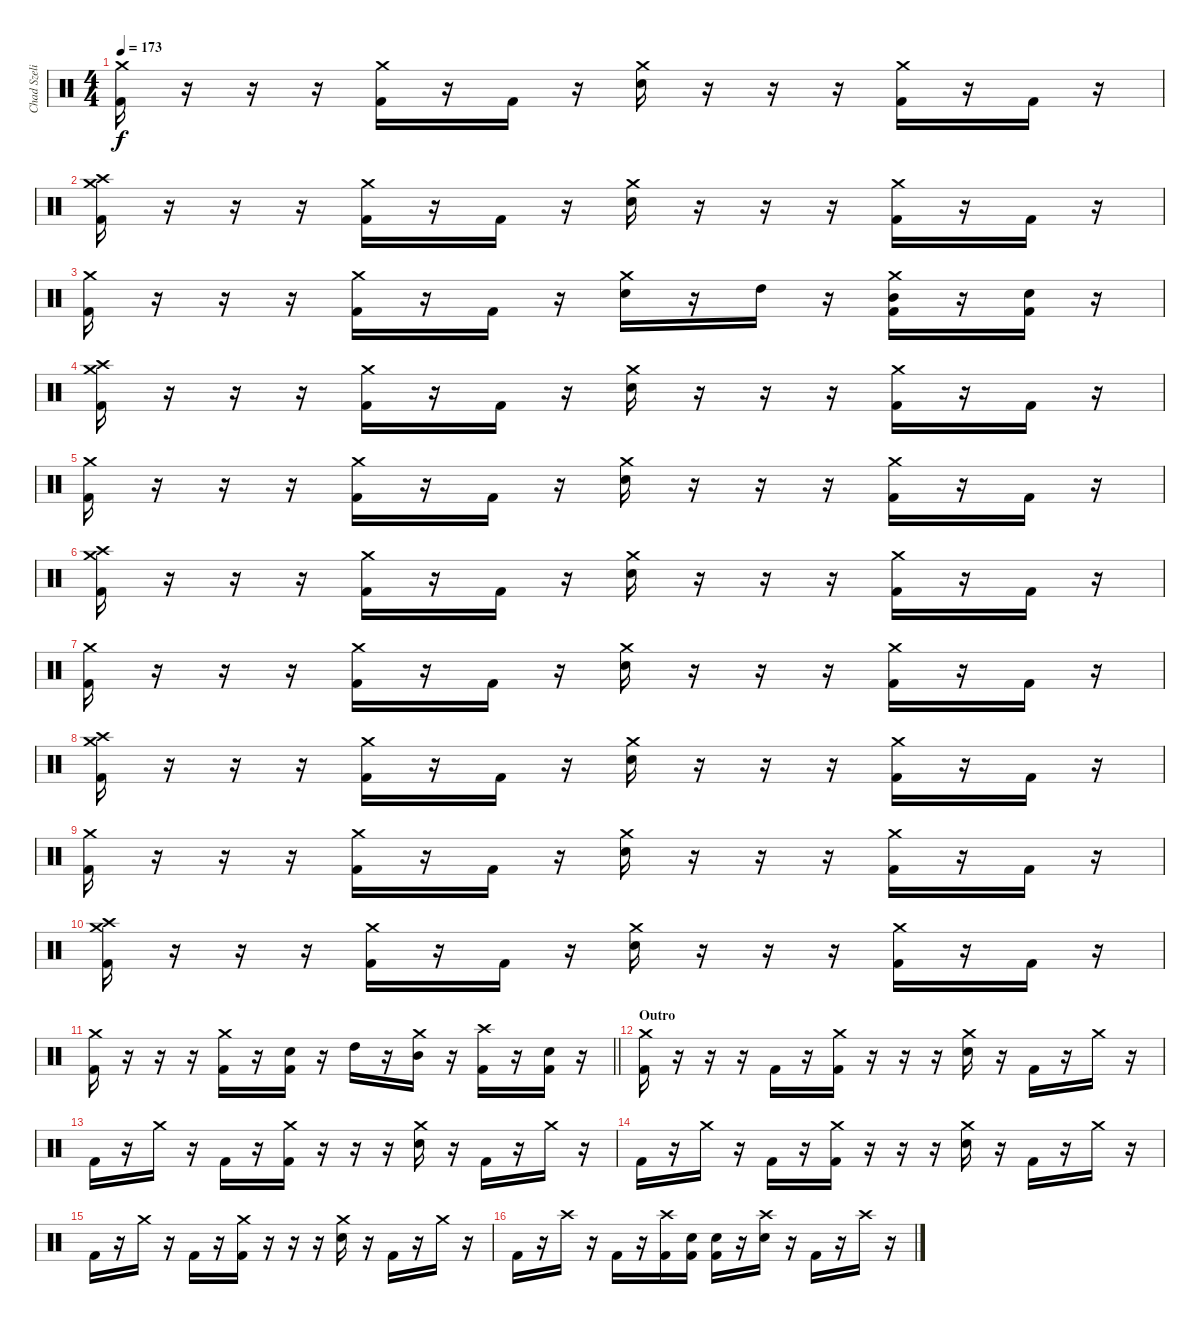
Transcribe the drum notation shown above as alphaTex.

\track ("Chad Szeliga" "Chad Szeli") {instrument percussion}
\staff {score}
\articulation defaults
\ts (4 4)
\tempo 173
\clef neutral
\ks c
("Crash medium (hit)" "Kick (hit) 2").16{dy f} r.16 r.16 r.16 ("Crash medium (hit)" "Kick (hit) 2").16 r.16 "Kick (hit) 2".16 r.16 ("Crash medium (hit)" "Electric Snare (hit)").16 r.16 r.16 r.16 ("Crash medium (hit)" "Kick (hit) 2").16 r.16 "Kick (hit) 2".16 r.16 |
("Crash medium (hit)" "Crash high (hit)" "Kick (hit) 2").16 r.16 r.16 r.16 ("Crash medium (hit)" "Kick (hit) 2").16 r.16 "Kick (hit) 2".16 r.16 ("Crash medium (hit)" "Electric Snare (hit)").16 r.16 r.16 r.16 ("Crash medium (hit)" "Kick (hit) 2").16 r.16 "Kick (hit) 2".16 r.16 |
("Crash medium (hit)" "Kick (hit) 2").16 r.16 r.16 r.16 ("Crash medium (hit)" "Kick (hit) 2").16 r.16 "Kick (hit) 2".16 r.16 ("Crash medium (hit)" "Electric Snare (hit)").16 r.16 "High Tom (hit)".16 r.16 ("Crash medium (hit)" "Mid Tom (hit)" "Kick (hit) 2").16 r.16 ("Electric Snare (hit)" "Kick (hit) 2").16 r.16 |
("Crash medium (hit)" "Crash high (hit)" "Kick (hit) 2").16 r.16 r.16 r.16 ("Crash medium (hit)" "Kick (hit) 2").16 r.16 "Kick (hit) 2".16 r.16 ("Crash medium (hit)" "Electric Snare (hit)").16 r.16 r.16 r.16 ("Crash medium (hit)" "Kick (hit) 2").16 r.16 "Kick (hit) 2".16 r.16 |
("Crash medium (hit)" "Kick (hit) 2").16 r.16 r.16 r.16 ("Crash medium (hit)" "Kick (hit) 2").16 r.16 "Kick (hit) 2".16 r.16 ("Crash medium (hit)" "Electric Snare (hit)").16 r.16 r.16 r.16 ("Crash medium (hit)" "Kick (hit) 2").16 r.16 "Kick (hit) 2".16 r.16 |
("Crash medium (hit)" "Crash high (hit)" "Kick (hit) 2").16 r.16 r.16 r.16 ("Crash medium (hit)" "Kick (hit) 2").16 r.16 "Kick (hit) 2".16 r.16 ("Crash medium (hit)" "Electric Snare (hit)").16 r.16 r.16 r.16 ("Crash medium (hit)" "Kick (hit) 2").16 r.16 "Kick (hit) 2".16 r.16 |
("Crash medium (hit)" "Kick (hit) 2").16 r.16 r.16 r.16 ("Crash medium (hit)" "Kick (hit) 2").16 r.16 "Kick (hit) 2".16 r.16 ("Crash medium (hit)" "Electric Snare (hit)").16 r.16 r.16 r.16 ("Crash medium (hit)" "Kick (hit) 2").16 r.16 "Kick (hit) 2".16 r.16 |
("Crash medium (hit)" "Crash high (hit)" "Kick (hit) 2").16 r.16 r.16 r.16 ("Crash medium (hit)" "Kick (hit) 2").16 r.16 "Kick (hit) 2".16 r.16 ("Crash medium (hit)" "Electric Snare (hit)").16 r.16 r.16 r.16 ("Crash medium (hit)" "Kick (hit) 2").16 r.16 "Kick (hit) 2".16 r.16 |
("Crash medium (hit)" "Kick (hit) 2").16 r.16 r.16 r.16 ("Crash medium (hit)" "Kick (hit) 2").16 r.16 "Kick (hit) 2".16 r.16 ("Crash medium (hit)" "Electric Snare (hit)").16 r.16 r.16 r.16 ("Crash medium (hit)" "Kick (hit) 2").16 r.16 "Kick (hit) 2".16 r.16 |
("Crash medium (hit)" "Crash high (hit)" "Kick (hit) 2").16 r.16 r.16 r.16 ("Crash medium (hit)" "Kick (hit) 2").16 r.16 "Kick (hit) 2".16 r.16 ("Crash medium (hit)" "Electric Snare (hit)").16 r.16 r.16 r.16 ("Crash medium (hit)" "Kick (hit) 2").16 r.16 "Kick (hit) 2".16 r.16 |
\barLineRight lightlight
("Crash medium (hit)" "Kick (hit) 2").16 r.16 r.16 r.16 ("Crash medium (hit)" "Kick (hit) 2").16 r.16 ("Electric Snare (hit)" "Kick (hit) 2").16 r.16 "High Tom (hit)".16 r.16 ("Crash medium (hit)" "Mid Tom (hit)").16 r.16 ("Crash high (hit)" "Kick (hit) 2").16 r.16 ("Electric Snare (hit)" "Kick (hit) 2").16 r.16 |
\section ("" "Outro")
("Crash medium (hit)" "Kick (hit) 2").16 r.16 r.16 r.16 "Kick (hit) 2".16 r.16 ("Crash medium (hit)" "Kick (hit) 2").16 r.16 r.16 r.16 ("Crash medium (hit)" "Electric Snare (hit)").16 r.16 "Kick (hit) 2".16 r.16 "Crash medium (hit)".16 r.16 |
"Kick (hit) 2".16 r.16 "Crash medium (hit)".16 r.16 "Kick (hit) 2".16 r.16 ("Crash medium (hit)" "Kick (hit) 2").16 r.16 r.16 r.16 ("Crash medium (hit)" "Electric Snare (hit)").16 r.16 "Kick (hit) 2".16 r.16 "Crash medium (hit)".16 r.16 |
"Kick (hit) 2".16 r.16 "Crash medium (hit)".16 r.16 "Kick (hit) 2".16 r.16 ("Crash medium (hit)" "Kick (hit) 2").16 r.16 r.16 r.16 ("Crash medium (hit)" "Electric Snare (hit)").16 r.16 "Kick (hit) 2".16 r.16 "Crash medium (hit)".16 r.16 |
"Kick (hit) 2".16 r.16 "Crash medium (hit)".16 r.16 "Kick (hit) 2".16 r.16 ("Crash medium (hit)" "Kick (hit) 2").16 r.16 r.16 r.16 ("Crash medium (hit)" "Electric Snare (hit)").16 r.16 "Kick (hit) 2".16 r.16 "Crash medium (hit)".16 r.16 |
"Kick (hit) 2".16 r.16 "Crash high (hit)".16 r.16 "Kick (hit) 2".16 r.16 ("Crash high (hit)" "Kick (hit) 2").16 ("Electric Snare (hit)" "Kick (hit) 2").16 ("Electric Snare (hit)" "Kick (hit) 2").16 r.16 ("Crash high (hit)" "Electric Snare (hit)").16 r.16 "Kick (hit) 2".16 r.16 "Crash high (hit)".16 r.16
